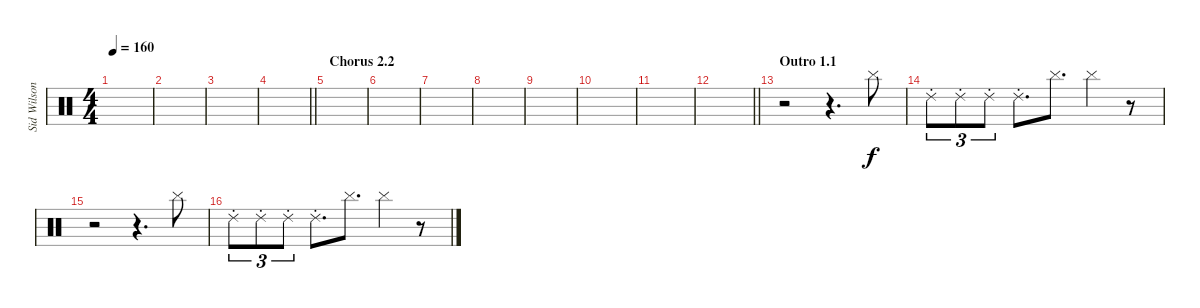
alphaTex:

\track ("Sid Wilson" "Sid Wilson") {instrument percussion}
\staff {score}
\articulation defaults
\ts (4 4)
\tempo 160
\clef neutral
\ks c
|
|
|
\barLineRight lightlight
|
\section ("" "Chorus 2.2")
|
|
|
|
|
|
|
\barLineRight lightlight
|
\section ("" "Outro 1.1")
r.2 r.4{d} "Cymbal (hit)".8 |
"Ride (choke) 2".8{tu (3 2)} "Ride (choke) 2".8{tu (3 2)} "Ride (choke) 2".8{tu (3 2)} "Ride (choke) 2".8{d} "Cymbal (hit)".8{d} "Cymbal (hit)".4 r.8 |
r.2 r.4{d} "Cymbal (hit)".8 |
"Ride (choke) 2".8{tu (3 2)} "Ride (choke) 2".8{tu (3 2)} "Ride (choke) 2".8{tu (3 2)} "Ride (choke) 2".8{d} "Cymbal (hit)".8{d} "Cymbal (hit)".4 r.8
